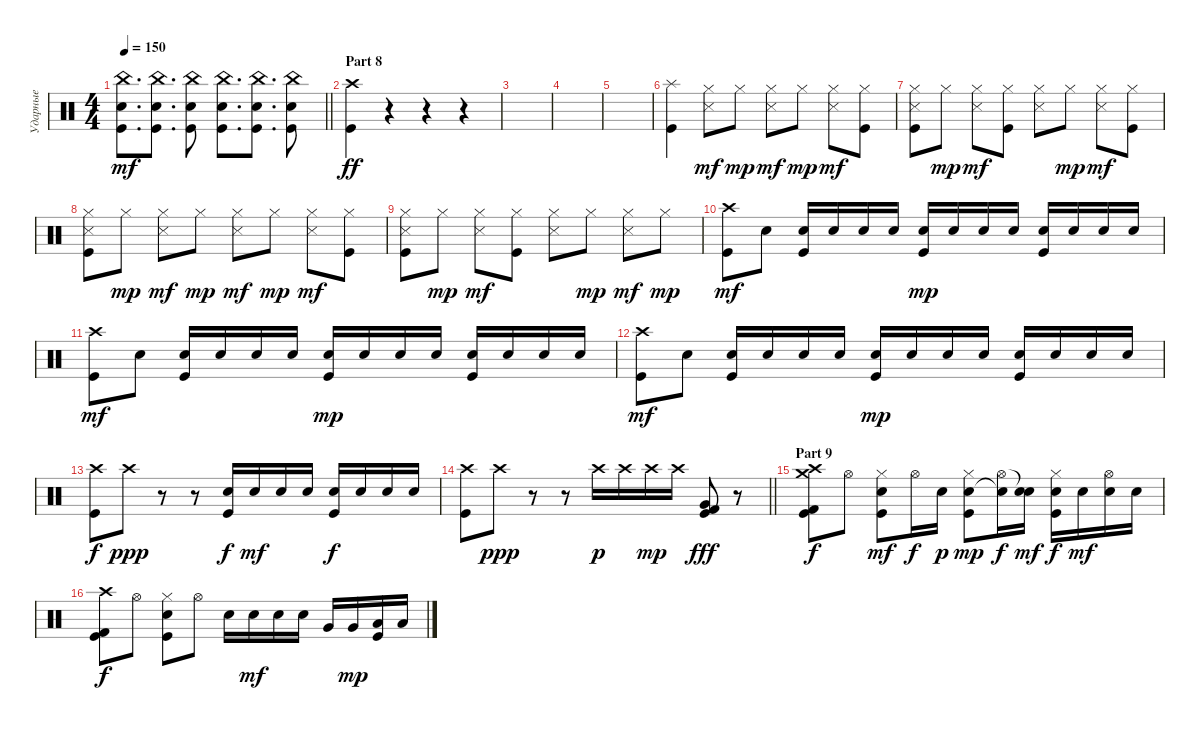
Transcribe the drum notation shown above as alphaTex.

\track ("Ударные" "Ударные") {instrument percussion}
\staff {score}
\articulation defaults
\ts (4 4)
\tempo 150
\clef neutral
\barLineRight lightlight
\ks c
("China (hit)" "Electric Snare (hit)" "Kick (hit)").8{d dy mf} ("China (hit)" "Electric Snare (hit)" "Kick (hit)").8{d} ("China (hit)" "Electric Snare (hit)" "Kick (hit)").8 ("China (hit)" "Electric Snare (hit)" "Kick (hit)").8{d} ("China (hit)" "Electric Snare (hit)" "Kick (hit)").8{d} ("China (hit)" "Electric Snare (hit)" "Kick (hit)").8 |
\section ("" "Part 8")
("Crash high (hit)" "Kick (hit)").4{dy ff} r.4 r.4 r.4 |
|
|
|
("Splash (hit)" "Kick (hit)").4 ("Hi-Hat (closed)" "Metronome (hit)").8{dy mf} "Hi-Hat (closed)".8{dy mp} ("Hi-Hat (closed)" "Metronome (hit)").8{dy mf} "Hi-Hat (closed)".8{dy mp} ("Hi-Hat (closed)" "Metronome (hit)").8{dy mf} ("Hi-Hat (closed)" "Kick (hit)").8 |
("Hi-Hat (closed)" "Metronome (hit)" "Kick (hit)").8 "Hi-Hat (closed)".8{dy mp} ("Hi-Hat (closed)" "Metronome (hit)").8{dy mf} ("Hi-Hat (closed)" "Kick (hit)").8 ("Hi-Hat (closed)" "Metronome (hit)").8 "Hi-Hat (closed)".8{dy mp} ("Hi-Hat (closed)" "Metronome (hit)").8{dy mf} ("Hi-Hat (closed)" "Kick (hit)").8 |
("Hi-Hat (closed)" "Metronome (hit)" "Kick (hit)").8 "Hi-Hat (closed)".8{dy mp} ("Hi-Hat (closed)" "Metronome (hit)").8{dy mf} "Hi-Hat (closed)".8{dy mp} ("Hi-Hat (closed)" "Metronome (hit)").8{dy mf} "Hi-Hat (closed)".8{dy mp} ("Hi-Hat (closed)" "Metronome (hit)").8{dy mf} ("Hi-Hat (closed)" "Kick (hit)").8 |
("Hi-Hat (closed)" "Metronome (hit)" "Kick (hit)").8 "Hi-Hat (closed)".8{dy mp} ("Hi-Hat (closed)" "Metronome (hit)").8{dy mf} ("Hi-Hat (closed)" "Kick (hit)").8 ("Hi-Hat (closed)" "Metronome (hit)").8 "Hi-Hat (closed)".8{dy mp} ("Hi-Hat (closed)" "Metronome (hit)").8{dy mf} "Hi-Hat (closed)".8{dy mp} |
("Crash high (hit)" "Kick (hit)").8{dy mf} "Electric Snare (hit)".8 ("Electric Snare (hit)" "Kick (hit)").16 "Electric Snare (hit)".16 "Electric Snare (hit)".16 "Electric Snare (hit)".16 ("Electric Snare (hit)" "Kick (hit)").16{dy mp} "Electric Snare (hit)".16 "Electric Snare (hit)".16 "Electric Snare (hit)".16 ("Electric Snare (hit)" "Kick (hit)").16 "Electric Snare (hit)".16 "Electric Snare (hit)".16 "Electric Snare (hit)".16 |
("Crash high (hit)" "Kick (hit)").8{dy mf} "Electric Snare (hit)".8 ("Electric Snare (hit)" "Kick (hit)").16 "Electric Snare (hit)".16 "Electric Snare (hit)".16 "Electric Snare (hit)".16 ("Electric Snare (hit)" "Kick (hit)").16{dy mp} "Electric Snare (hit)".16 "Electric Snare (hit)".16 "Electric Snare (hit)".16 ("Electric Snare (hit)" "Kick (hit)").16 "Electric Snare (hit)".16 "Electric Snare (hit)".16 "Electric Snare (hit)".16 |
("Crash high (hit)" "Kick (hit)").8{dy mf} "Electric Snare (hit)".8 ("Electric Snare (hit)" "Kick (hit)").16 "Electric Snare (hit)".16 "Electric Snare (hit)".16 "Electric Snare (hit)".16 ("Electric Snare (hit)" "Kick (hit)").16{dy mp} "Electric Snare (hit)".16 "Electric Snare (hit)".16 "Electric Snare (hit)".16 ("Electric Snare (hit)" "Kick (hit)").16 "Electric Snare (hit)".16 "Electric Snare (hit)".16 "Electric Snare (hit)".16 |
("Crash high (hit)" "Kick (hit)").8{dy f} "Crash high (hit)".8{dy ppp} r.8 r.8 ("Electric Snare (hit)" "Kick (hit)").16{dy f} "Electric Snare (hit)".16{dy mf} "Electric Snare (hit)".16 "Electric Snare (hit)".16 ("Electric Snare (hit)" "Kick (hit)").16{dy f} "Electric Snare (hit)".16 "Electric Snare (hit)".16 "Electric Snare (hit)".16 |
\barLineRight lightlight
("Crash high (hit)" "Kick (hit)").8 "Crash high (hit)".8{dy ppp} r.8 r.8 "Crash high (hit)".16{dy p} "Crash high (hit)".16 "Crash high (hit)".16{dy mp} "Crash high (hit)".16 ("Very Low Tom (hit)" "Kick (hit) 2" "Kick (hit)").8{dy fff} r.8 |
\section ("" "Part 9")
("Crash medium (hit)" "Crash high (hit)" "Kick (hit) 2" "Kick (hit)").8{dy f} "Hi-Hat (open)".8 ("Hi-Hat (closed)" "Electric Snare (hit)" "Kick (hit)").8{dy mf} "Hi-Hat (open)".16{dy f} "Electric Snare (hit)".16{dy p} ("Hi-Hat (closed)" "Snare (hit) 2" "Kick (hit)").8{dy mp} ("Hi-Hat (open)" "Snare (hit)"{t}).16{dy f} ("Snare (hit)"{t} "Electric Snare (hit)").16{dy mf} ("Hi-Hat (closed)" "Electric Snare (hit)" "Kick (hit)").16{dy f} "Electric Snare (hit)".16{dy mf} ("Hi-Hat (open)" "Electric Snare (hit)").16 "Electric Snare (hit)".16 |
("Crash high (hit)" "Kick (hit) 2" "Kick (hit)").8{dy f} "Hi-Hat (open)".8 ("Hi-Hat (closed)" "Electric Snare (hit)" "Kick (hit)").8 "Hi-Hat (open)".8 "Electric Snare (hit)".16 "Electric Snare (hit)".16{dy mf} "Electric Snare (hit)".16 "Electric Snare (hit)".16 "Very Low Tom (hit)".16 "Very Low Tom (hit)".16{dy mp} ("Low Floor Tom (hit)" "Kick (hit)").16 "Low Floor Tom (hit)".16
